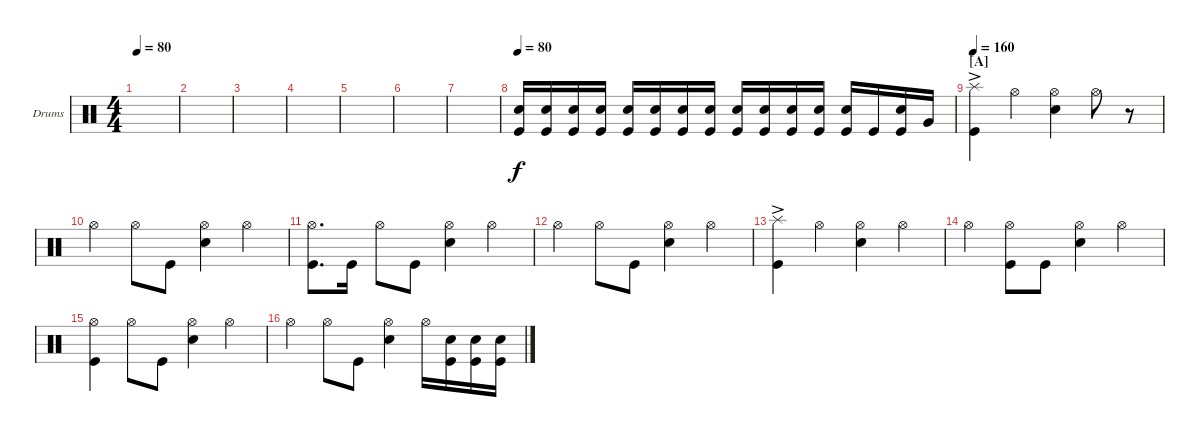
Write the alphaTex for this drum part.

\defaultSystemsLayout 4
\bracketExtendMode groupsimilarinstruments
\firstSystemTrackNameOrientation horizontal
\otherSystemsTrackNameOrientation horizontal
\track ("Drumkit" "Drums") {instrument percussion}
\staff {score}
\articulation defaults
\ts (4 4)
\tempo 80
\clef neutral
\scale
0.333333
\ks c
|
\scale
0.333333 |
\scale
0.333333 |
\scale
0.333333 |
\scale
0.333333 |
\scale
0.333333 |
\scale
0.333333 |
\tempo 80
\scale
0.333333 ("Snare (hit) 2" "Kick (hit)").16{dy f} ("Snare (hit) 2" "Kick (hit)").16 ("Snare (hit) 2" "Kick (hit)").16 ("Snare (hit) 2" "Kick (hit)").16 ("Snare (hit) 2" "Kick (hit)").16 ("Snare (hit) 2" "Kick (hit)").16 ("Snare (hit) 2" "Kick (hit)").16 ("Snare (hit) 2" "Kick (hit)").16 ("Snare (hit) 2" "Kick (hit)").16 ("Snare (hit) 2" "Kick (hit)").16 ("Snare (hit) 2" "Kick (hit)").16 ("Snare (hit) 2" "Kick (hit)").16 ("Snare (hit) 2" "Kick (hit)").16 "Kick (hit)".16 ("Snare (hit) 2" "Kick (hit)").16 "Very Low Tom (hit)".16 |
\section ("A" "")
\tempo 160
("Splash (hit)"{ac} "Kick (hit)").4 "Hi-Hat (open)".4 ("Hi-Hat (open)" "Snare (hit) 2").4 "Hi-Hat (open)".8 r.8 |
"Hi-Hat (open)".4 "Hi-Hat (open)".8 "Kick (hit)".8 ("Hi-Hat (open)" "Snare (hit) 2").4 "Hi-Hat (open)".4 |
("Kick (hit)" "Hi-Hat (open)").8{d} "Kick (hit)".16 "Hi-Hat (open)".8 "Kick (hit)".8 ("Hi-Hat (open)" "Snare (hit) 2").4 "Hi-Hat (open)".4 |
"Hi-Hat (open)".4 "Hi-Hat (open)".8 "Kick (hit)".8 ("Hi-Hat (open)" "Snare (hit) 2").4 "Hi-Hat (open)".4 |
("Splash (hit)"{ac} "Kick (hit)").4 "Hi-Hat (open)".4 ("Hi-Hat (open)" "Snare (hit) 2").4 "Hi-Hat (open)".4 |
"Hi-Hat (open)".4 ("Hi-Hat (open)" "Kick (hit)").8 "Kick (hit)".8 ("Hi-Hat (open)" "Snare (hit) 2").4 "Hi-Hat (open)".4 |
("Kick (hit)" "Hi-Hat (open)").4 "Hi-Hat (open)".8 "Kick (hit)".8 ("Hi-Hat (open)" "Snare (hit) 2").4 "Hi-Hat (open)".4 |
"Hi-Hat (open)".4 "Hi-Hat (open)".8 "Kick (hit)".8 ("Hi-Hat (open)" "Snare (hit) 2").4 "Hi-Hat (open)".16 ("Snare (hit) 2" "Kick (hit)").16 ("Snare (hit) 2" "Kick (hit)").16 ("Snare (hit) 2" "Kick (hit)").16
